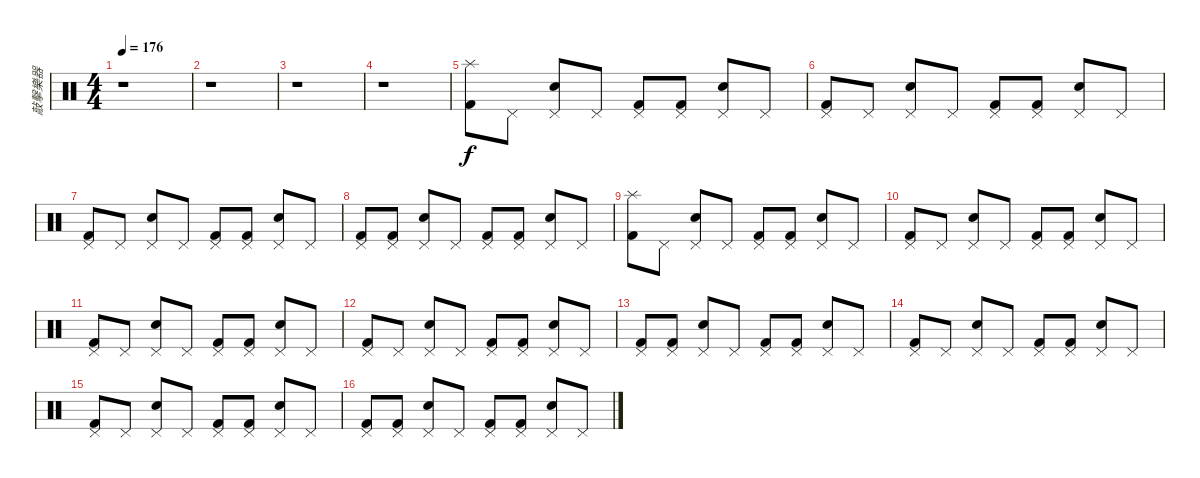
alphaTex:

\track ("敲擊樂器" "敲擊樂器") {instrument percussion}
\staff {score}
\articulation defaults
\ts (4 4)
\tempo 176
\clef neutral
\ks c
r.1{dy f} |
r.1 |
r.1 |
r.1 |
("Splash (hit)" "Kick (hit) 2").8 "Pedal Hi-Hat (hit)".8 ("Snare (hit) 2" "Pedal Hi-Hat (hit)").8 "Pedal Hi-Hat (hit)".8 ("Pedal Hi-Hat (hit)" "Kick (hit) 2").8 ("Kick (hit) 2" "Pedal Hi-Hat (hit)").8 ("Pedal Hi-Hat (hit)" "Snare (hit) 2").8 "Pedal Hi-Hat (hit)".8 |
("Pedal Hi-Hat (hit)" "Kick (hit) 2").8 "Pedal Hi-Hat (hit)".8 ("Snare (hit) 2" "Pedal Hi-Hat (hit)").8 "Pedal Hi-Hat (hit)".8 ("Pedal Hi-Hat (hit)" "Kick (hit) 2").8 ("Kick (hit) 2" "Pedal Hi-Hat (hit)").8 ("Pedal Hi-Hat (hit)" "Snare (hit) 2").8 "Pedal Hi-Hat (hit)".8 |
("Pedal Hi-Hat (hit)" "Kick (hit) 2").8 "Pedal Hi-Hat (hit)".8 ("Snare (hit) 2" "Pedal Hi-Hat (hit)").8 "Pedal Hi-Hat (hit)".8 ("Pedal Hi-Hat (hit)" "Kick (hit) 2").8 ("Kick (hit) 2" "Pedal Hi-Hat (hit)").8 ("Pedal Hi-Hat (hit)" "Snare (hit) 2").8 "Pedal Hi-Hat (hit)".8 |
("Pedal Hi-Hat (hit)" "Kick (hit) 2").8 ("Pedal Hi-Hat (hit)" "Kick (hit) 2").8 ("Snare (hit) 2" "Pedal Hi-Hat (hit)").8 "Pedal Hi-Hat (hit)".8 ("Pedal Hi-Hat (hit)" "Kick (hit) 2").8 ("Kick (hit) 2" "Pedal Hi-Hat (hit)").8 ("Pedal Hi-Hat (hit)" "Snare (hit) 2").8 "Pedal Hi-Hat (hit)".8 |
("Splash (hit)" "Kick (hit) 2").8 "Pedal Hi-Hat (hit)".8 ("Snare (hit) 2" "Pedal Hi-Hat (hit)").8 "Pedal Hi-Hat (hit)".8 ("Pedal Hi-Hat (hit)" "Kick (hit) 2").8 ("Kick (hit) 2" "Pedal Hi-Hat (hit)").8 ("Pedal Hi-Hat (hit)" "Snare (hit) 2").8 "Pedal Hi-Hat (hit)".8 |
("Pedal Hi-Hat (hit)" "Kick (hit) 2").8 "Pedal Hi-Hat (hit)".8 ("Snare (hit) 2" "Pedal Hi-Hat (hit)").8 "Pedal Hi-Hat (hit)".8 ("Pedal Hi-Hat (hit)" "Kick (hit) 2").8 ("Kick (hit) 2" "Pedal Hi-Hat (hit)").8 ("Pedal Hi-Hat (hit)" "Snare (hit) 2").8 "Pedal Hi-Hat (hit)".8 |
("Pedal Hi-Hat (hit)" "Kick (hit) 2").8 "Pedal Hi-Hat (hit)".8 ("Snare (hit) 2" "Pedal Hi-Hat (hit)").8 "Pedal Hi-Hat (hit)".8 ("Pedal Hi-Hat (hit)" "Kick (hit) 2").8 ("Kick (hit) 2" "Pedal Hi-Hat (hit)").8 ("Pedal Hi-Hat (hit)" "Snare (hit) 2").8 "Pedal Hi-Hat (hit)".8 |
("Pedal Hi-Hat (hit)" "Kick (hit) 2").8 "Pedal Hi-Hat (hit)".8 ("Snare (hit) 2" "Pedal Hi-Hat (hit)").8 "Pedal Hi-Hat (hit)".8 ("Pedal Hi-Hat (hit)" "Kick (hit) 2").8 ("Kick (hit) 2" "Pedal Hi-Hat (hit)").8 ("Pedal Hi-Hat (hit)" "Snare (hit) 2").8 "Pedal Hi-Hat (hit)".8 |
("Pedal Hi-Hat (hit)" "Kick (hit) 2").8 ("Pedal Hi-Hat (hit)" "Kick (hit) 2").8 ("Snare (hit) 2" "Pedal Hi-Hat (hit)").8 "Pedal Hi-Hat (hit)".8 ("Pedal Hi-Hat (hit)" "Kick (hit) 2").8 ("Kick (hit) 2" "Pedal Hi-Hat (hit)").8 ("Pedal Hi-Hat (hit)" "Snare (hit) 2").8 "Pedal Hi-Hat (hit)".8 |
("Pedal Hi-Hat (hit)" "Kick (hit) 2").8 "Pedal Hi-Hat (hit)".8 ("Snare (hit) 2" "Pedal Hi-Hat (hit)").8 "Pedal Hi-Hat (hit)".8 ("Pedal Hi-Hat (hit)" "Kick (hit) 2").8 ("Kick (hit) 2" "Pedal Hi-Hat (hit)").8 ("Pedal Hi-Hat (hit)" "Snare (hit) 2").8 "Pedal Hi-Hat (hit)".8 |
("Pedal Hi-Hat (hit)" "Kick (hit) 2").8 "Pedal Hi-Hat (hit)".8 ("Snare (hit) 2" "Pedal Hi-Hat (hit)").8 "Pedal Hi-Hat (hit)".8 ("Pedal Hi-Hat (hit)" "Kick (hit) 2").8 ("Kick (hit) 2" "Pedal Hi-Hat (hit)").8 ("Pedal Hi-Hat (hit)" "Snare (hit) 2").8 "Pedal Hi-Hat (hit)".8 |
("Pedal Hi-Hat (hit)" "Kick (hit) 2").8 ("Pedal Hi-Hat (hit)" "Kick (hit) 2").8 ("Snare (hit) 2" "Pedal Hi-Hat (hit)").8 "Pedal Hi-Hat (hit)".8 ("Pedal Hi-Hat (hit)" "Kick (hit) 2").8 ("Kick (hit) 2" "Pedal Hi-Hat (hit)").8 ("Pedal Hi-Hat (hit)" "Snare (hit) 2").8 "Pedal Hi-Hat (hit)".8
